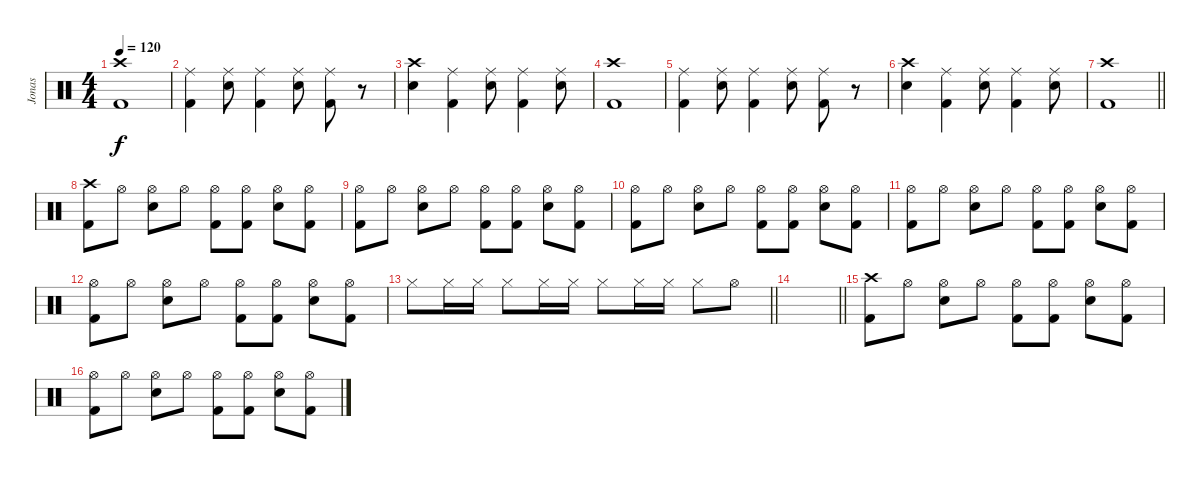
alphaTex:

\track ("Jonas" "Jonas") {instrument percussion}
\staff {score}
\articulation defaults
\ts (4 4)
\tempo 120
\clef neutral
\ks c
("Crash high (hit)" "Kick (hit) 2").1{dy f} |
("Ride (middle)" "Kick (hit) 2").4 ("Ride (middle)" "Snare (hit) 2").8 ("Ride (middle)" "Kick (hit) 2").4 ("Ride (middle)" "Snare (hit) 2").8 ("Ride (middle)" "Kick (hit) 2").8 r.8 |
("Crash high (hit)" "Snare (hit) 2").4 ("Ride (middle)" "Kick (hit) 2").4 ("Ride (middle)" "Snare (hit) 2").8 ("Ride (middle)" "Kick (hit) 2").4 ("Ride (middle)" "Snare (hit) 2").8 |
("Crash high (hit)" "Kick (hit) 2").1 |
("Ride (middle)" "Kick (hit) 2").4 ("Ride (middle)" "Snare (hit) 2").8 ("Ride (middle)" "Kick (hit) 2").4 ("Ride (middle)" "Snare (hit) 2").8 ("Ride (middle)" "Kick (hit) 2").8 r.8 |
("Crash high (hit)" "Snare (hit) 2").4 ("Ride (middle)" "Kick (hit) 2").4 ("Ride (middle)" "Snare (hit) 2").8 ("Ride (middle)" "Kick (hit) 2").4 ("Ride (middle)" "Snare (hit) 2").8 |
\barLineRight lightlight
("Crash high (hit)" "Kick (hit) 2").1 |
("Crash high (hit)" "Kick (hit) 2").8 "Hi-Hat (open)".8 ("Hi-Hat (open)" "Snare (hit) 2").8 "Hi-Hat (open)".8 ("Hi-Hat (open)" "Kick (hit) 2").8 ("Hi-Hat (open)" "Kick (hit) 2").8 ("Hi-Hat (open)" "Snare (hit) 2").8 ("Hi-Hat (open)" "Kick (hit) 2").8 |
("Hi-Hat (open)" "Kick (hit) 2").8 "Hi-Hat (open)".8 ("Hi-Hat (open)" "Snare (hit) 2").8 "Hi-Hat (open)".8 ("Hi-Hat (open)" "Kick (hit) 2").8 ("Hi-Hat (open)" "Kick (hit) 2").8 ("Hi-Hat (open)" "Snare (hit) 2").8 ("Hi-Hat (open)" "Kick (hit) 2").8 |
("Hi-Hat (open)" "Kick (hit) 2").8 "Hi-Hat (open)".8 ("Hi-Hat (open)" "Snare (hit) 2").8 "Hi-Hat (open)".8 ("Hi-Hat (open)" "Kick (hit) 2").8 ("Hi-Hat (open)" "Kick (hit) 2").8 ("Hi-Hat (open)" "Snare (hit) 2").8 ("Hi-Hat (open)" "Kick (hit) 2").8 |
("Hi-Hat (open)" "Kick (hit) 2").8 "Hi-Hat (open)".8 ("Hi-Hat (open)" "Snare (hit) 2").8 "Hi-Hat (open)".8 ("Hi-Hat (open)" "Kick (hit) 2").8 ("Hi-Hat (open)" "Kick (hit) 2").8 ("Hi-Hat (open)" "Snare (hit) 2").8 ("Hi-Hat (open)" "Kick (hit) 2").8 |
("Hi-Hat (open)" "Kick (hit) 2").8 "Hi-Hat (open)".8 ("Hi-Hat (open)" "Snare (hit) 2").8 "Hi-Hat (open)".8 ("Hi-Hat (open)" "Kick (hit) 2").8 ("Hi-Hat (open)" "Kick (hit) 2").8 ("Hi-Hat (open)" "Snare (hit) 2").8 ("Hi-Hat (open)" "Kick (hit) 2").8 |
\barLineRight lightlight "Hi-Hat (closed)".8 "Hi-Hat (closed)".16 "Hi-Hat (closed)".16 "Hi-Hat (closed)".8 "Hi-Hat (closed)".16 "Hi-Hat (closed)".16 "Hi-Hat (closed)".8 "Hi-Hat (closed)".16 "Hi-Hat (closed)".16 "Hi-Hat (closed)".8 "Hi-Hat (open)".8
|
\barLineRight lightlight
|
("Crash high (hit)" "Kick (hit) 2").8 "Hi-Hat (open)".8 ("Hi-Hat (open)" "Snare (hit) 2").8 "Hi-Hat (open)".8 ("Hi-Hat (open)" "Kick (hit) 2").8 ("Hi-Hat (open)" "Kick (hit) 2").8 ("Hi-Hat (open)" "Snare (hit) 2").8 ("Hi-Hat (open)" "Kick (hit) 2").8 |
("Hi-Hat (open)" "Kick (hit) 2").8 "Hi-Hat (open)".8 ("Hi-Hat (open)" "Snare (hit) 2").8 "Hi-Hat (open)".8 ("Hi-Hat (open)" "Kick (hit) 2").8 ("Hi-Hat (open)" "Kick (hit) 2").8 ("Hi-Hat (open)" "Snare (hit) 2").8 ("Hi-Hat (open)" "Kick (hit) 2").8
